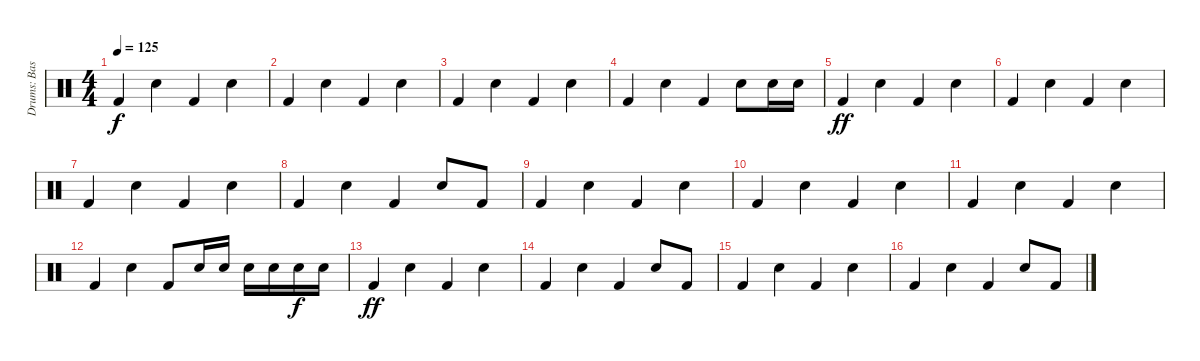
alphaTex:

\track ("Drums: Bass, Snare" "Drums: Bas") {instrument percussion}
\staff {score}
\articulation defaults
\ts (4 4)
\tempo 125
\clef neutral
\ks c "Kick (hit) 2".4{dy f} "Electric Snare (hit)".4 "Kick (hit) 2".4 "Electric Snare (hit)".4
|
"Kick (hit) 2".4 "Electric Snare (hit)".4 "Kick (hit) 2".4 "Electric Snare (hit)".4 |
"Kick (hit) 2".4 "Electric Snare (hit)".4 "Kick (hit) 2".4 "Electric Snare (hit)".4 |
"Kick (hit) 2".4 "Electric Snare (hit)".4 "Kick (hit) 2".4 "Electric Snare (hit)".8 "Electric Snare (hit)".16 "Electric Snare (hit)".16 |
"Kick (hit) 2".4{dy ff} "Electric Snare (hit)".4 "Kick (hit) 2".4 "Electric Snare (hit)".4 |
"Kick (hit) 2".4 "Electric Snare (hit)".4 "Kick (hit) 2".4 "Electric Snare (hit)".4 |
"Kick (hit) 2".4 "Electric Snare (hit)".4 "Kick (hit) 2".4 "Electric Snare (hit)".4 |
"Kick (hit) 2".4 "Electric Snare (hit)".4 "Kick (hit) 2".4 "Electric Snare (hit)".8 "Kick (hit) 2".8 |
"Kick (hit) 2".4 "Electric Snare (hit)".4 "Kick (hit) 2".4 "Electric Snare (hit)".4 |
"Kick (hit) 2".4 "Electric Snare (hit)".4 "Kick (hit) 2".4 "Electric Snare (hit)".4 |
"Kick (hit) 2".4 "Electric Snare (hit)".4 "Kick (hit) 2".4 "Electric Snare (hit)".4 |
"Kick (hit) 2".4 "Electric Snare (hit)".4 "Kick (hit) 2".8 "Electric Snare (hit)".16 "Electric Snare (hit)".16 "Electric Snare (hit)".16 "Electric Snare (hit)".16 "Electric Snare (hit)".16{dy f} "Electric Snare (hit)".16 |
"Kick (hit) 2".4{dy ff} "Electric Snare (hit)".4 "Kick (hit) 2".4 "Electric Snare (hit)".4 |
"Kick (hit) 2".4 "Electric Snare (hit)".4 "Kick (hit) 2".4 "Electric Snare (hit)".8 "Kick (hit) 2".8 |
"Kick (hit) 2".4 "Electric Snare (hit)".4 "Kick (hit) 2".4 "Electric Snare (hit)".4 |
"Kick (hit) 2".4 "Electric Snare (hit)".4 "Kick (hit) 2".4 "Electric Snare (hit)".8 "Kick (hit) 2".8
